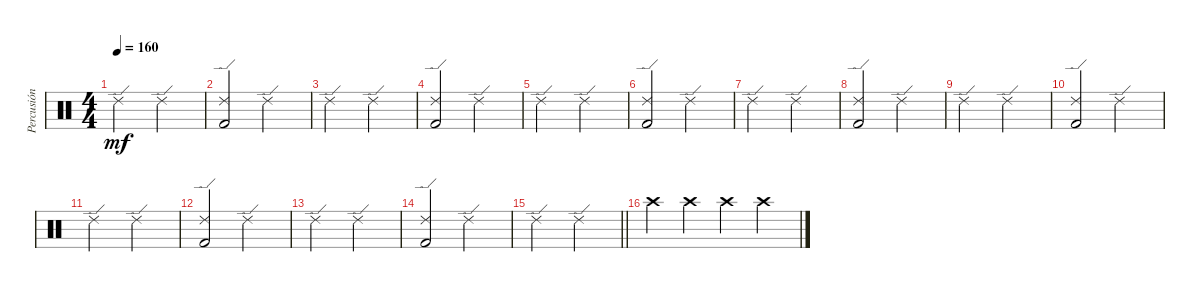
\track ("Percusión" "Percusión") {instrument percussion}
\staff {score}
\articulation defaults
\ts (4 4)
\tempo 160
\clef neutral
\ks c "Ride (edge) 2".2{dy mf} "Ride (edge) 2".2
|
("Ride (edge) 2" "Kick (hit) 2").2 "Ride (edge) 2".2 |
"Ride (edge) 2".2 "Ride (edge) 2".2 |
("Ride (edge) 2" "Kick (hit) 2").2 "Ride (edge) 2".2 |
"Ride (edge) 2".2 "Ride (edge) 2".2 |
("Ride (edge) 2" "Kick (hit) 2").2 "Ride (edge) 2".2 |
"Ride (edge) 2".2 "Ride (edge) 2".2 |
("Ride (edge) 2" "Kick (hit) 2").2 "Ride (edge) 2".2 |
"Ride (edge) 2".2 "Ride (edge) 2".2 |
("Ride (edge) 2" "Kick (hit) 2").2 "Ride (edge) 2".2 |
"Ride (edge) 2".2 "Ride (edge) 2".2 |
("Ride (edge) 2" "Kick (hit) 2").2 "Ride (edge) 2".2 |
"Ride (edge) 2".2 "Ride (edge) 2".2 |
("Ride (edge) 2" "Kick (hit) 2").2 "Ride (edge) 2".2 |
\barLineRight lightlight "Ride (edge) 2".2 "Ride (edge) 2".2
|
"Crash high (hit)".4 "Crash high (hit)".4 "Crash high (hit)".4 "Crash high (hit)".4
